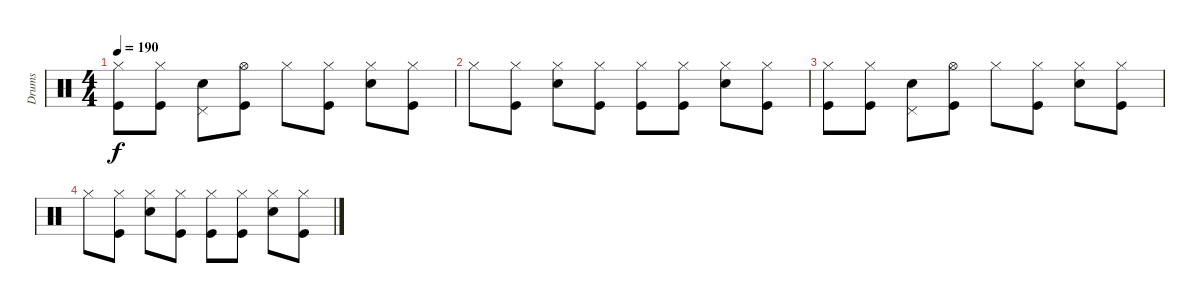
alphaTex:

\track ("Drums" "Drums") {instrument percussion}
\staff {score}
\articulation defaults
\ts (4 4)
\tempo 190
\clef neutral
\ks c
("Kick (hit)" "Hi-Hat (closed)").8{dy f} ("Kick (hit)" "Hi-Hat (closed)").8 ("Electric Snare (hit)" "Pedal Hi-Hat (hit)").8 ("Kick (hit)" "Hi-Hat (open)").8 "Hi-Hat (closed)".8 ("Kick (hit)" "Hi-Hat (closed)").8 ("Electric Snare (hit)" "Hi-Hat (closed)").8 ("Kick (hit)" "Hi-Hat (closed)").8 |
"Hi-Hat (closed)".8 ("Kick (hit)" "Hi-Hat (closed)").8 ("Electric Snare (hit)" "Hi-Hat (closed)").8 ("Kick (hit)" "Hi-Hat (closed)").8 ("Kick (hit)" "Hi-Hat (closed)").8 ("Kick (hit)" "Hi-Hat (closed)").8 ("Electric Snare (hit)" "Hi-Hat (closed)").8 ("Kick (hit)" "Hi-Hat (closed)").8 |
("Kick (hit)" "Hi-Hat (closed)").8 ("Kick (hit)" "Hi-Hat (closed)").8 ("Electric Snare (hit)" "Pedal Hi-Hat (hit)").8 ("Kick (hit)" "Hi-Hat (open)").8 "Hi-Hat (closed)".8 ("Kick (hit)" "Hi-Hat (closed)").8 ("Electric Snare (hit)" "Hi-Hat (closed)").8 ("Kick (hit)" "Hi-Hat (closed)").8 |
"Hi-Hat (closed)".8 ("Kick (hit)" "Hi-Hat (closed)").8 ("Electric Snare (hit)" "Hi-Hat (closed)").8 ("Kick (hit)" "Hi-Hat (closed)").8 ("Kick (hit)" "Hi-Hat (closed)").8 ("Kick (hit)" "Hi-Hat (closed)").8 ("Electric Snare (hit)" "Hi-Hat (closed)").8 ("Kick (hit)" "Hi-Hat (closed)").8
